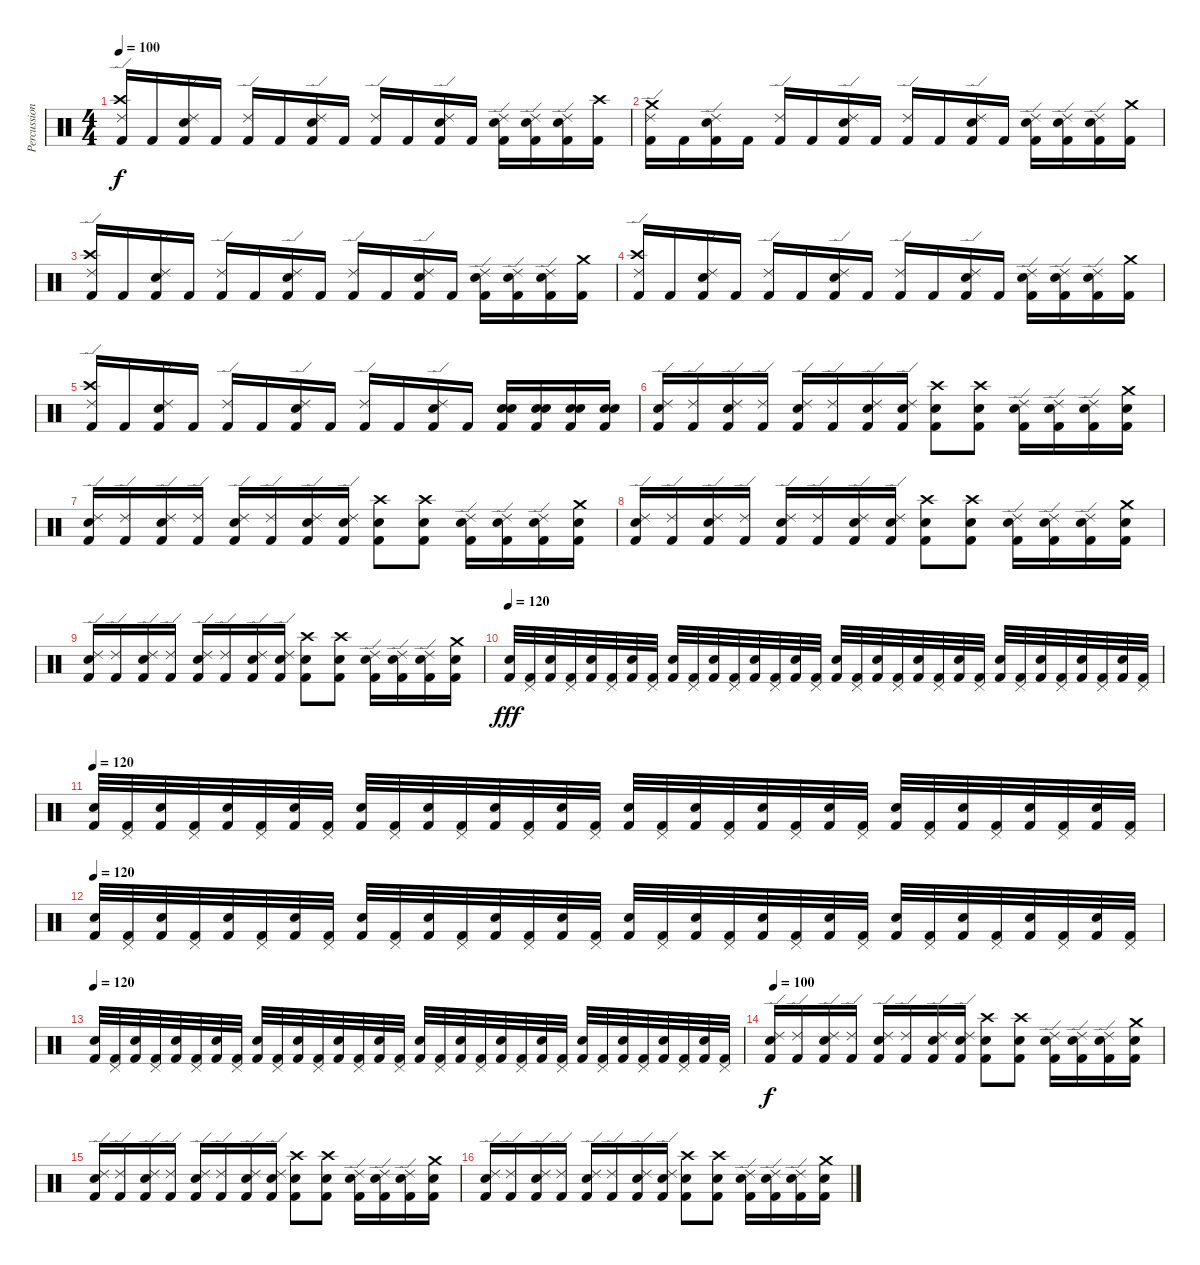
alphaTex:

\track ("Percussion" "Percussion") {instrument percussion}
\staff {score}
\articulation defaults
\ts (4 4)
\tempo 100
\clef neutral
\ks c
("Ride (edge) 2" "Crash high (hit)" "Kick (hit) 2").16{dy f} "Kick (hit) 2".16 ("Ride (edge) 2" "Snare (hit) 2" "Kick (hit) 2").16 "Kick (hit) 2".16 ("Ride (edge) 2" "Kick (hit) 2").16 "Kick (hit) 2".16 ("Ride (edge) 2" "Snare (hit) 2" "Kick (hit) 2").16 "Kick (hit) 2".16 ("Ride (edge) 2" "Kick (hit) 2").16 "Kick (hit) 2".16 ("Ride (edge) 2" "Snare (hit) 2" "Kick (hit) 2").16 "Kick (hit) 2".16 ("Ride (edge) 2" "Snare (hit) 2" "Kick (hit) 2").16 ("Ride (edge) 2" "Snare (hit) 2" "Kick (hit) 2").16 ("Ride (edge) 2" "Snare (hit) 2" "Kick (hit) 2").16 ("Crash high (hit)" "Kick (hit) 2").16 |
("Ride (edge) 2" "Crash medium (hit)" "Kick (hit) 2").16 "Kick (hit) 2".16 ("Ride (edge) 2" "Snare (hit) 2" "Kick (hit) 2").16 "Kick (hit) 2".16 ("Ride (edge) 2" "Kick (hit) 2").16 "Kick (hit) 2".16 ("Ride (edge) 2" "Snare (hit) 2" "Kick (hit) 2").16 "Kick (hit) 2".16 ("Ride (edge) 2" "Kick (hit) 2").16 "Kick (hit) 2".16 ("Ride (edge) 2" "Snare (hit) 2" "Kick (hit) 2").16 "Kick (hit) 2".16 ("Ride (edge) 2" "Snare (hit) 2" "Kick (hit) 2").16 ("Ride (edge) 2" "Snare (hit) 2" "Kick (hit) 2").16 ("Ride (edge) 2" "Snare (hit) 2" "Kick (hit) 2").16 ("Crash medium (hit)" "Kick (hit) 2").16 |
("Ride (edge) 2" "Crash high (hit)" "Kick (hit) 2").16 "Kick (hit) 2".16 ("Ride (edge) 2" "Snare (hit) 2" "Kick (hit) 2").16 "Kick (hit) 2".16 ("Ride (edge) 2" "Kick (hit) 2").16 "Kick (hit) 2".16 ("Ride (edge) 2" "Snare (hit) 2" "Kick (hit) 2").16 "Kick (hit) 2".16 ("Ride (edge) 2" "Kick (hit) 2").16 "Kick (hit) 2".16 ("Ride (edge) 2" "Snare (hit) 2" "Kick (hit) 2").16 "Kick (hit) 2".16 ("Ride (edge) 2" "Snare (hit) 2" "Kick (hit) 2").16 ("Ride (edge) 2" "Snare (hit) 2" "Kick (hit) 2").16 ("Ride (edge) 2" "Snare (hit) 2" "Kick (hit) 2").16 ("Crash medium (hit)" "Kick (hit) 2").16 |
("Ride (edge) 2" "Crash high (hit)" "Kick (hit) 2").16 "Kick (hit) 2".16 ("Ride (edge) 2" "Snare (hit) 2" "Kick (hit) 2").16 "Kick (hit) 2".16 ("Ride (edge) 2" "Kick (hit) 2").16 "Kick (hit) 2".16 ("Ride (edge) 2" "Snare (hit) 2" "Kick (hit) 2").16 "Kick (hit) 2".16 ("Ride (edge) 2" "Kick (hit) 2").16 "Kick (hit) 2".16 ("Ride (edge) 2" "Snare (hit) 2" "Kick (hit) 2").16 "Kick (hit) 2".16 ("Ride (edge) 2" "Snare (hit) 2" "Kick (hit) 2").16 ("Ride (edge) 2" "Snare (hit) 2" "Kick (hit) 2").16 ("Ride (edge) 2" "Snare (hit) 2" "Kick (hit) 2").16 ("Crash medium (hit)" "Kick (hit) 2").16 |
("Ride (edge) 2" "Crash high (hit)" "Kick (hit) 2").16 "Kick (hit) 2".16 ("Ride (edge) 2" "Snare (hit) 2" "Kick (hit) 2").16 "Kick (hit) 2".16 ("Ride (edge) 2" "Kick (hit) 2").16 "Kick (hit) 2".16 ("Ride (edge) 2" "Snare (hit) 2" "Kick (hit) 2").16 "Kick (hit) 2".16 ("Ride (edge) 2" "Kick (hit) 2").16 "Kick (hit) 2".16 ("Ride (edge) 2" "Snare (hit) 2" "Kick (hit) 2").16 "Kick (hit) 2".16 ("Snare (hit) 2" "Snare (hit) 2" "Kick (hit) 2").16 ("Snare (hit) 2" "Snare (hit) 2" "Kick (hit) 2").16 ("Snare (hit) 2" "Snare (hit) 2" "Kick (hit) 2").16 ("Snare (hit) 2" "Snare (hit) 2" "Kick (hit) 2").16 |
("Ride (edge) 2" "Snare (hit) 2" "Kick (hit) 2").16 ("Ride (edge) 2" "Kick (hit) 2").16 ("Ride (edge) 2" "Snare (hit) 2" "Kick (hit) 2").16 ("Ride (edge) 2" "Kick (hit) 2").16 ("Ride (edge) 2" "Snare (hit) 2" "Kick (hit) 2").16 ("Ride (edge) 2" "Kick (hit) 2").16 ("Ride (edge) 2" "Snare (hit) 2" "Kick (hit) 2").16 ("Ride (edge) 2" "Snare (hit) 2" "Kick (hit) 2").16 ("Crash high (hit)" "Snare (hit) 2" "Kick (hit) 2").8 ("Crash high (hit)" "Snare (hit) 2" "Kick (hit) 2").8 ("Ride (edge) 2" "Snare (hit) 2" "Kick (hit) 2").16 ("Ride (edge) 2" "Snare (hit) 2" "Kick (hit) 2").16 ("Ride (edge) 2" "Snare (hit) 2" "Kick (hit) 2").16 ("Crash medium (hit)" "Snare (hit) 2" "Kick (hit) 2").16 |
("Ride (edge) 2" "Snare (hit) 2" "Kick (hit) 2").16 ("Ride (edge) 2" "Kick (hit) 2").16 ("Ride (edge) 2" "Snare (hit) 2" "Kick (hit) 2").16 ("Ride (edge) 2" "Kick (hit) 2").16 ("Ride (edge) 2" "Snare (hit) 2" "Kick (hit) 2").16 ("Ride (edge) 2" "Kick (hit) 2").16 ("Ride (edge) 2" "Snare (hit) 2" "Kick (hit) 2").16 ("Ride (edge) 2" "Snare (hit) 2" "Kick (hit) 2").16 ("Crash high (hit)" "Snare (hit) 2" "Kick (hit) 2").8 ("Crash high (hit)" "Snare (hit) 2" "Kick (hit) 2").8 ("Ride (edge) 2" "Snare (hit) 2" "Kick (hit) 2").16 ("Ride (edge) 2" "Snare (hit) 2" "Kick (hit) 2").16 ("Ride (edge) 2" "Snare (hit) 2" "Kick (hit) 2").16 ("Crash medium (hit)" "Snare (hit) 2" "Kick (hit) 2").16 |
("Ride (edge) 2" "Snare (hit) 2" "Kick (hit) 2").16 ("Ride (edge) 2" "Kick (hit) 2").16 ("Ride (edge) 2" "Snare (hit) 2" "Kick (hit) 2").16 ("Ride (edge) 2" "Kick (hit) 2").16 ("Ride (edge) 2" "Snare (hit) 2" "Kick (hit) 2").16 ("Ride (edge) 2" "Kick (hit) 2").16 ("Ride (edge) 2" "Snare (hit) 2" "Kick (hit) 2").16 ("Ride (edge) 2" "Snare (hit) 2" "Kick (hit) 2").16 ("Crash high (hit)" "Snare (hit) 2" "Kick (hit) 2").8 ("Crash high (hit)" "Snare (hit) 2" "Kick (hit) 2").8 ("Ride (edge) 2" "Snare (hit) 2" "Kick (hit) 2").16 ("Ride (edge) 2" "Snare (hit) 2" "Kick (hit) 2").16 ("Ride (edge) 2" "Snare (hit) 2" "Kick (hit) 2").16 ("Crash medium (hit)" "Snare (hit) 2" "Kick (hit) 2").16 |
("Ride (edge) 2" "Snare (hit) 2" "Kick (hit) 2").16 ("Ride (edge) 2" "Kick (hit) 2").16 ("Ride (edge) 2" "Snare (hit) 2" "Kick (hit) 2").16 ("Ride (edge) 2" "Kick (hit) 2").16 ("Ride (edge) 2" "Snare (hit) 2" "Kick (hit) 2").16 ("Ride (edge) 2" "Kick (hit) 2").16 ("Ride (edge) 2" "Snare (hit) 2" "Kick (hit) 2").16 ("Ride (edge) 2" "Snare (hit) 2" "Kick (hit) 2").16 ("Crash high (hit)" "Snare (hit) 2" "Kick (hit) 2").8 ("Crash high (hit)" "Snare (hit) 2" "Kick (hit) 2").8 ("Ride (edge) 2" "Snare (hit) 2" "Kick (hit) 2").16 ("Ride (edge) 2" "Snare (hit) 2" "Kick (hit) 2").16 ("Ride (edge) 2" "Snare (hit) 2" "Kick (hit) 2").16 ("Crash medium (hit)" "Snare (hit) 2" "Kick (hit) 2").16 |
\tempo 120
("Snare (hit) 2" "Kick (hit) 2").32{dy fff} ("Pedal Hi-Hat (hit)" "Kick (hit) 2").32 ("Snare (hit) 2" "Kick (hit) 2").32 ("Pedal Hi-Hat (hit)" "Kick (hit) 2").32 ("Snare (hit) 2" "Kick (hit) 2").32 ("Pedal Hi-Hat (hit)" "Kick (hit) 2").32 ("Snare (hit) 2" "Kick (hit) 2").32 ("Pedal Hi-Hat (hit)" "Kick (hit) 2").32 ("Snare (hit) 2" "Kick (hit) 2").32 ("Pedal Hi-Hat (hit)" "Kick (hit) 2").32 ("Snare (hit) 2" "Kick (hit) 2").32 ("Pedal Hi-Hat (hit)" "Kick (hit) 2").32 ("Snare (hit) 2" "Kick (hit) 2").32 ("Pedal Hi-Hat (hit)" "Kick (hit) 2").32 ("Snare (hit) 2" "Kick (hit) 2").32 ("Pedal Hi-Hat (hit)" "Kick (hit) 2").32 ("Snare (hit) 2" "Kick (hit) 2").32 ("Pedal Hi-Hat (hit)" "Kick (hit) 2").32 ("Snare (hit) 2" "Kick (hit) 2").32 ("Pedal Hi-Hat (hit)" "Kick (hit) 2").32 ("Snare (hit) 2" "Kick (hit) 2").32 ("Pedal Hi-Hat (hit)" "Kick (hit) 2").32 ("Snare (hit) 2" "Kick (hit) 2").32 ("Pedal Hi-Hat (hit)" "Kick (hit) 2").32 ("Snare (hit) 2" "Kick (hit) 2").32 ("Pedal Hi-Hat (hit)" "Kick (hit) 2").32 ("Snare (hit) 2" "Kick (hit) 2").32 ("Pedal Hi-Hat (hit)" "Kick (hit) 2").32 ("Snare (hit) 2" "Kick (hit) 2").32 ("Pedal Hi-Hat (hit)" "Kick (hit) 2").32 ("Snare (hit) 2" "Kick (hit) 2").32 ("Pedal Hi-Hat (hit)" "Kick (hit) 2").32 |
\tempo 120
("Snare (hit) 2" "Kick (hit) 2").32 ("Pedal Hi-Hat (hit)" "Kick (hit) 2").32 ("Snare (hit) 2" "Kick (hit) 2").32 ("Pedal Hi-Hat (hit)" "Kick (hit) 2").32 ("Snare (hit) 2" "Kick (hit) 2").32 ("Pedal Hi-Hat (hit)" "Kick (hit) 2").32 ("Snare (hit) 2" "Kick (hit) 2").32 ("Pedal Hi-Hat (hit)" "Kick (hit) 2").32 ("Snare (hit) 2" "Kick (hit) 2").32 ("Pedal Hi-Hat (hit)" "Kick (hit) 2").32 ("Snare (hit) 2" "Kick (hit) 2").32 ("Pedal Hi-Hat (hit)" "Kick (hit) 2").32 ("Snare (hit) 2" "Kick (hit) 2").32 ("Pedal Hi-Hat (hit)" "Kick (hit) 2").32 ("Snare (hit) 2" "Kick (hit) 2").32 ("Pedal Hi-Hat (hit)" "Kick (hit) 2").32 ("Snare (hit) 2" "Kick (hit) 2").32 ("Pedal Hi-Hat (hit)" "Kick (hit) 2").32 ("Snare (hit) 2" "Kick (hit) 2").32 ("Pedal Hi-Hat (hit)" "Kick (hit) 2").32 ("Snare (hit) 2" "Kick (hit) 2").32 ("Pedal Hi-Hat (hit)" "Kick (hit) 2").32 ("Snare (hit) 2" "Kick (hit) 2").32 ("Pedal Hi-Hat (hit)" "Kick (hit) 2").32 ("Snare (hit) 2" "Kick (hit) 2").32 ("Pedal Hi-Hat (hit)" "Kick (hit) 2").32 ("Snare (hit) 2" "Kick (hit) 2").32 ("Pedal Hi-Hat (hit)" "Kick (hit) 2").32 ("Snare (hit) 2" "Kick (hit) 2").32 ("Pedal Hi-Hat (hit)" "Kick (hit) 2").32 ("Snare (hit) 2" "Kick (hit) 2").32 ("Pedal Hi-Hat (hit)" "Kick (hit) 2").32 |
\tempo 120
("Snare (hit) 2" "Kick (hit) 2").32 ("Pedal Hi-Hat (hit)" "Kick (hit) 2").32 ("Snare (hit) 2" "Kick (hit) 2").32 ("Pedal Hi-Hat (hit)" "Kick (hit) 2").32 ("Snare (hit) 2" "Kick (hit) 2").32 ("Pedal Hi-Hat (hit)" "Kick (hit) 2").32 ("Snare (hit) 2" "Kick (hit) 2").32 ("Pedal Hi-Hat (hit)" "Kick (hit) 2").32 ("Snare (hit) 2" "Kick (hit) 2").32 ("Pedal Hi-Hat (hit)" "Kick (hit) 2").32 ("Snare (hit) 2" "Kick (hit) 2").32 ("Pedal Hi-Hat (hit)" "Kick (hit) 2").32 ("Snare (hit) 2" "Kick (hit) 2").32 ("Pedal Hi-Hat (hit)" "Kick (hit) 2").32 ("Snare (hit) 2" "Kick (hit) 2").32 ("Pedal Hi-Hat (hit)" "Kick (hit) 2").32 ("Snare (hit) 2" "Kick (hit) 2").32 ("Pedal Hi-Hat (hit)" "Kick (hit) 2").32 ("Snare (hit) 2" "Kick (hit) 2").32 ("Pedal Hi-Hat (hit)" "Kick (hit) 2").32 ("Snare (hit) 2" "Kick (hit) 2").32 ("Pedal Hi-Hat (hit)" "Kick (hit) 2").32 ("Snare (hit) 2" "Kick (hit) 2").32 ("Pedal Hi-Hat (hit)" "Kick (hit) 2").32 ("Snare (hit) 2" "Kick (hit) 2").32 ("Pedal Hi-Hat (hit)" "Kick (hit) 2").32 ("Snare (hit) 2" "Kick (hit) 2").32 ("Pedal Hi-Hat (hit)" "Kick (hit) 2").32 ("Snare (hit) 2" "Kick (hit) 2").32 ("Pedal Hi-Hat (hit)" "Kick (hit) 2").32 ("Snare (hit) 2" "Kick (hit) 2").32 ("Pedal Hi-Hat (hit)" "Kick (hit) 2").32 |
\tempo 120
("Snare (hit) 2" "Kick (hit) 2").32 ("Pedal Hi-Hat (hit)" "Kick (hit) 2").32 ("Snare (hit) 2" "Kick (hit) 2").32 ("Pedal Hi-Hat (hit)" "Kick (hit) 2").32 ("Snare (hit) 2" "Kick (hit) 2").32 ("Pedal Hi-Hat (hit)" "Kick (hit) 2").32 ("Snare (hit) 2" "Kick (hit) 2").32 ("Pedal Hi-Hat (hit)" "Kick (hit) 2").32 ("Snare (hit) 2" "Kick (hit) 2").32 ("Pedal Hi-Hat (hit)" "Kick (hit) 2").32 ("Snare (hit) 2" "Kick (hit) 2").32 ("Pedal Hi-Hat (hit)" "Kick (hit) 2").32 ("Snare (hit) 2" "Kick (hit) 2").32 ("Pedal Hi-Hat (hit)" "Kick (hit) 2").32 ("Snare (hit) 2" "Kick (hit) 2").32 ("Pedal Hi-Hat (hit)" "Kick (hit) 2").32 ("Snare (hit) 2" "Kick (hit) 2").32 ("Pedal Hi-Hat (hit)" "Kick (hit) 2").32 ("Snare (hit) 2" "Kick (hit) 2").32 ("Pedal Hi-Hat (hit)" "Kick (hit) 2").32 ("Snare (hit) 2" "Kick (hit) 2").32 ("Pedal Hi-Hat (hit)" "Kick (hit) 2").32 ("Snare (hit) 2" "Kick (hit) 2").32 ("Pedal Hi-Hat (hit)" "Kick (hit) 2").32 ("Snare (hit) 2" "Kick (hit) 2").32 ("Pedal Hi-Hat (hit)" "Kick (hit) 2").32 ("Snare (hit) 2" "Kick (hit) 2").32 ("Pedal Hi-Hat (hit)" "Kick (hit) 2").32 ("Snare (hit) 2" "Kick (hit) 2").32 ("Pedal Hi-Hat (hit)" "Kick (hit) 2").32 ("Snare (hit) 2" "Kick (hit) 2").32 ("Pedal Hi-Hat (hit)" "Kick (hit) 2").32 |
\tempo 100
("Ride (edge) 2" "Snare (hit) 2" "Kick (hit) 2").16{dy f} ("Ride (edge) 2" "Kick (hit) 2").16 ("Ride (edge) 2" "Snare (hit) 2" "Kick (hit) 2").16 ("Ride (edge) 2" "Kick (hit) 2").16 ("Ride (edge) 2" "Snare (hit) 2" "Kick (hit) 2").16 ("Ride (edge) 2" "Kick (hit) 2").16 ("Ride (edge) 2" "Snare (hit) 2" "Kick (hit) 2").16 ("Ride (edge) 2" "Snare (hit) 2" "Kick (hit) 2").16 ("Crash high (hit)" "Snare (hit) 2" "Kick (hit) 2").8 ("Crash high (hit)" "Snare (hit) 2" "Kick (hit) 2").8 ("Ride (edge) 2" "Snare (hit) 2" "Kick (hit) 2").16 ("Ride (edge) 2" "Snare (hit) 2" "Kick (hit) 2").16 ("Ride (edge) 2" "Snare (hit) 2" "Kick (hit) 2").16 ("Crash medium (hit)" "Snare (hit) 2" "Kick (hit) 2").16 |
("Ride (edge) 2" "Snare (hit) 2" "Kick (hit) 2").16 ("Ride (edge) 2" "Kick (hit) 2").16 ("Ride (edge) 2" "Snare (hit) 2" "Kick (hit) 2").16 ("Ride (edge) 2" "Kick (hit) 2").16 ("Ride (edge) 2" "Snare (hit) 2" "Kick (hit) 2").16 ("Ride (edge) 2" "Kick (hit) 2").16 ("Ride (edge) 2" "Snare (hit) 2" "Kick (hit) 2").16 ("Ride (edge) 2" "Snare (hit) 2" "Kick (hit) 2").16 ("Crash high (hit)" "Snare (hit) 2" "Kick (hit) 2").8 ("Crash high (hit)" "Snare (hit) 2" "Kick (hit) 2").8 ("Ride (edge) 2" "Snare (hit) 2" "Kick (hit) 2").16 ("Ride (edge) 2" "Snare (hit) 2" "Kick (hit) 2").16 ("Ride (edge) 2" "Snare (hit) 2" "Kick (hit) 2").16 ("Crash medium (hit)" "Snare (hit) 2" "Kick (hit) 2").16 |
("Ride (edge) 2" "Snare (hit) 2" "Kick (hit) 2").16 ("Ride (edge) 2" "Kick (hit) 2").16 ("Ride (edge) 2" "Snare (hit) 2" "Kick (hit) 2").16 ("Ride (edge) 2" "Kick (hit) 2").16 ("Ride (edge) 2" "Snare (hit) 2" "Kick (hit) 2").16 ("Ride (edge) 2" "Kick (hit) 2").16 ("Ride (edge) 2" "Snare (hit) 2" "Kick (hit) 2").16 ("Ride (edge) 2" "Snare (hit) 2" "Kick (hit) 2").16 ("Crash high (hit)" "Snare (hit) 2" "Kick (hit) 2").8 ("Crash high (hit)" "Snare (hit) 2" "Kick (hit) 2").8 ("Ride (edge) 2" "Snare (hit) 2" "Kick (hit) 2").16 ("Ride (edge) 2" "Snare (hit) 2" "Kick (hit) 2").16 ("Ride (edge) 2" "Snare (hit) 2" "Kick (hit) 2").16 ("Crash medium (hit)" "Snare (hit) 2" "Kick (hit) 2").16
